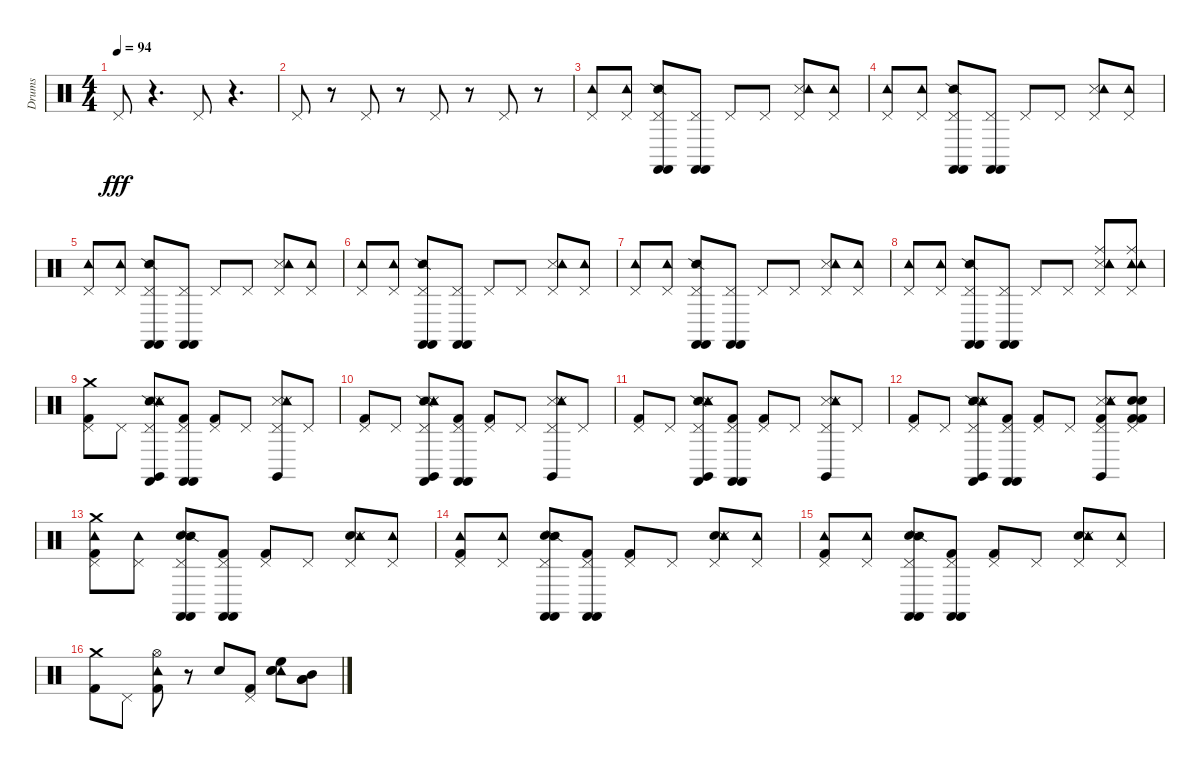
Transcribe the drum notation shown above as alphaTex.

\track ("Drums" "Drums") {instrument percussion}
\staff {score}
\articulation defaults
\ts (4 4)
\tempo 94
\clef neutral
\ks c "Pedal Hi-Hat (hit)".8{dy fff}
r.4{d} "Pedal Hi-Hat (hit)".8 r.4{d} |
"Pedal Hi-Hat (hit)".8 r.8 "Pedal Hi-Hat (hit)".8 r.8 "Pedal Hi-Hat (hit)".8 r.8 "Pedal Hi-Hat (hit)".8 r.8 |
("Pedal Hi-Hat (hit)" "Tambourine (hit)").8 ("Pedal Hi-Hat (hit)" "Tambourine (hit)").8 ("Pedal Hi-Hat (hit)" "Snare (side stick) 2" "Castanets (hit)" "Castanets (hit)").8 ("Pedal Hi-Hat (hit)" "Castanets (hit)" "Castanets (hit)").8 "Pedal Hi-Hat (hit)".8 "Pedal Hi-Hat (hit)".8 ("Pedal Hi-Hat (hit)" "Metronome (hit)" "Tambourine (hit)").8 ("Pedal Hi-Hat (hit)" "Tambourine (hit)").8 |
("Pedal Hi-Hat (hit)" "Tambourine (hit)").8 ("Pedal Hi-Hat (hit)" "Tambourine (hit)").8 ("Pedal Hi-Hat (hit)" "Snare (side stick) 2" "Castanets (hit)" "Castanets (hit)").8 ("Pedal Hi-Hat (hit)" "Castanets (hit)" "Castanets (hit)").8 "Pedal Hi-Hat (hit)".8 "Pedal Hi-Hat (hit)".8 ("Pedal Hi-Hat (hit)" "Metronome (hit)" "Tambourine (hit)").8 ("Pedal Hi-Hat (hit)" "Tambourine (hit)").8 |
("Pedal Hi-Hat (hit)" "Tambourine (hit)").8 ("Pedal Hi-Hat (hit)" "Tambourine (hit)").8 ("Pedal Hi-Hat (hit)" "Snare (side stick) 2" "Castanets (hit)" "Castanets (hit)").8 ("Pedal Hi-Hat (hit)" "Castanets (hit)" "Castanets (hit)").8 "Pedal Hi-Hat (hit)".8 "Pedal Hi-Hat (hit)".8 ("Pedal Hi-Hat (hit)" "Metronome (hit)" "Tambourine (hit)").8 ("Pedal Hi-Hat (hit)" "Tambourine (hit)").8 |
("Pedal Hi-Hat (hit)" "Tambourine (hit)").8 ("Pedal Hi-Hat (hit)" "Tambourine (hit)").8 ("Pedal Hi-Hat (hit)" "Snare (side stick) 2" "Castanets (hit)" "Castanets (hit)").8 ("Pedal Hi-Hat (hit)" "Castanets (hit)" "Castanets (hit)").8 "Pedal Hi-Hat (hit)".8 "Pedal Hi-Hat (hit)".8 ("Pedal Hi-Hat (hit)" "Metronome (hit)" "Tambourine (hit)").8 ("Pedal Hi-Hat (hit)" "Tambourine (hit)").8 |
("Pedal Hi-Hat (hit)" "Tambourine (hit)").8 ("Pedal Hi-Hat (hit)" "Tambourine (hit)").8 ("Pedal Hi-Hat (hit)" "Snare (side stick) 2" "Castanets (hit)" "Castanets (hit)").8 ("Pedal Hi-Hat (hit)" "Castanets (hit)" "Castanets (hit)").8 "Pedal Hi-Hat (hit)".8 "Pedal Hi-Hat (hit)".8 ("Pedal Hi-Hat (hit)" "Metronome (hit)" "Tambourine (hit)").8 ("Pedal Hi-Hat (hit)" "Tambourine (hit)").8 |
("Pedal Hi-Hat (hit)" "Tambourine (hit)").8 ("Pedal Hi-Hat (hit)" "Tambourine (hit)").8 ("Pedal Hi-Hat (hit)" "Snare (side stick) 2" "Castanets (hit)" "Castanets (hit)").8 ("Pedal Hi-Hat (hit)" "Castanets (hit)" "Castanets (hit)").8 "Pedal Hi-Hat (hit)".8 "Pedal Hi-Hat (hit)".8 ("Pedal Hi-Hat (hit)" "Metronome (hit)" "Tambourine (hit)" "Tambourine (hit)" "Ride (middle)").8 ("Pedal Hi-Hat (hit)" "Tambourine (hit)" "Tambourine (hit)" "Ride (middle)").8 |
("Pedal Hi-Hat (hit)" "Kick (hit) 2" "Crash medium (hit)").8 "Pedal Hi-Hat (hit)".8 ("Pedal Hi-Hat (hit)" "Snare (side stick) 2" "Castanets (hit)" "Snare (side stick) 3" "Tambourine (hit)" "Claves (hit)").8 ("Pedal Hi-Hat (hit)" "Kick (hit) 2" "Castanets (hit)" "Castanets (hit)").8 ("Pedal Hi-Hat (hit)" "Kick (hit) 2").8 "Pedal Hi-Hat (hit)".8 ("Pedal Hi-Hat (hit)" "Metronome (hit)" "Tambourine (hit)" "Claves (hit)" "Snare (side stick) 3").8 "Pedal Hi-Hat (hit)".8 |
("Pedal Hi-Hat (hit)" "Kick (hit) 2").8 "Pedal Hi-Hat (hit)".8 ("Pedal Hi-Hat (hit)" "Snare (side stick) 2" "Castanets (hit)" "Snare (side stick) 3" "Tambourine (hit)" "Claves (hit)").8 ("Pedal Hi-Hat (hit)" "Kick (hit) 2" "Castanets (hit)" "Castanets (hit)").8 ("Pedal Hi-Hat (hit)" "Kick (hit) 2").8 "Pedal Hi-Hat (hit)".8 ("Pedal Hi-Hat (hit)" "Metronome (hit)" "Tambourine (hit)" "Claves (hit)" "Snare (side stick) 3").8 "Pedal Hi-Hat (hit)".8 |
("Pedal Hi-Hat (hit)" "Kick (hit) 2").8 "Pedal Hi-Hat (hit)".8 ("Pedal Hi-Hat (hit)" "Snare (side stick) 2" "Castanets (hit)" "Snare (side stick) 3" "Tambourine (hit)" "Claves (hit)").8 ("Pedal Hi-Hat (hit)" "Kick (hit) 2" "Castanets (hit)" "Castanets (hit)").8 ("Pedal Hi-Hat (hit)" "Kick (hit) 2").8 "Pedal Hi-Hat (hit)".8 ("Pedal Hi-Hat (hit)" "Metronome (hit)" "Tambourine (hit)" "Claves (hit)" "Snare (side stick) 3").8 "Pedal Hi-Hat (hit)".8 |
("Pedal Hi-Hat (hit)" "Kick (hit) 2").8 "Pedal Hi-Hat (hit)".8 ("Pedal Hi-Hat (hit)" "Snare (side stick) 2" "Castanets (hit)" "Snare (side stick) 3" "Tambourine (hit)" "Claves (hit)").8 ("Pedal Hi-Hat (hit)" "Kick (hit) 2" "Castanets (hit)" "Castanets (hit)").8 ("Pedal Hi-Hat (hit)" "Kick (hit) 2").8 "Pedal Hi-Hat (hit)".8 ("Pedal Hi-Hat (hit)" "Metronome (hit)" "Tambourine (hit)" "Claves (hit)" "Snare (side stick) 3" "Kick (hit) 2").8 ("Pedal Hi-Hat (hit)" "Kick (hit) 2" "Electric Snare (hit)" "Kick (hit) 2" "Electric Snare (hit)").8 |
("Pedal Hi-Hat (hit)" "Kick (hit) 2" "Crash medium (hit)" "Tambourine (hit)").8 ("Pedal Hi-Hat (hit)" "Tambourine (hit)").8 ("Pedal Hi-Hat (hit)" "Electric Snare (hit)" "Snare (side stick) 2" "Castanets (hit)" "Castanets (hit)").8 ("Pedal Hi-Hat (hit)" "Kick (hit) 2" "Castanets (hit)" "Castanets (hit)").8 ("Pedal Hi-Hat (hit)" "Kick (hit) 2").8 "Pedal Hi-Hat (hit)".8 ("Pedal Hi-Hat (hit)" "Electric Snare (hit)" "Metronome (hit)" "Tambourine (hit)").8 ("Pedal Hi-Hat (hit)" "Tambourine (hit)").8 |
("Pedal Hi-Hat (hit)" "Kick (hit) 2" "Tambourine (hit)").8 ("Pedal Hi-Hat (hit)" "Tambourine (hit)").8 ("Pedal Hi-Hat (hit)" "Electric Snare (hit)" "Snare (side stick) 2" "Castanets (hit)" "Castanets (hit)").8 ("Pedal Hi-Hat (hit)" "Kick (hit) 2" "Castanets (hit)" "Castanets (hit)").8 ("Pedal Hi-Hat (hit)" "Kick (hit) 2").8 "Pedal Hi-Hat (hit)".8 ("Pedal Hi-Hat (hit)" "Electric Snare (hit)" "Metronome (hit)" "Tambourine (hit)").8 ("Pedal Hi-Hat (hit)" "Tambourine (hit)").8 |
("Pedal Hi-Hat (hit)" "Kick (hit) 2" "Tambourine (hit)").8 ("Pedal Hi-Hat (hit)" "Tambourine (hit)").8 ("Pedal Hi-Hat (hit)" "Electric Snare (hit)" "Snare (side stick) 2" "Castanets (hit)" "Castanets (hit)").8 ("Pedal Hi-Hat (hit)" "Kick (hit) 2" "Castanets (hit)" "Castanets (hit)").8 ("Pedal Hi-Hat (hit)" "Kick (hit) 2").8 "Pedal Hi-Hat (hit)".8 ("Pedal Hi-Hat (hit)" "Electric Snare (hit)" "Metronome (hit)" "Tambourine (hit)").8 ("Pedal Hi-Hat (hit)" "Tambourine (hit)").8 |
("Kick (hit) 2" "Crash medium (hit)").8 "Pedal Hi-Hat (hit)".8 ("Hi-Hat (open)" "Kick (hit) 2" "Tambourine (hit)").8 r.8 "Electric Snare (hit)".8 ("Pedal Hi-Hat (hit)" "Kick (hit) 2").8 ("Tambourine (hit)" "Electric Snare (hit)" "High Floor Tom (hit)" "Electric Snare (hit)").8 ("Mid Tom (hit)" "Low Floor Tom (hit)" "Low Floor Tom (hit)").8
